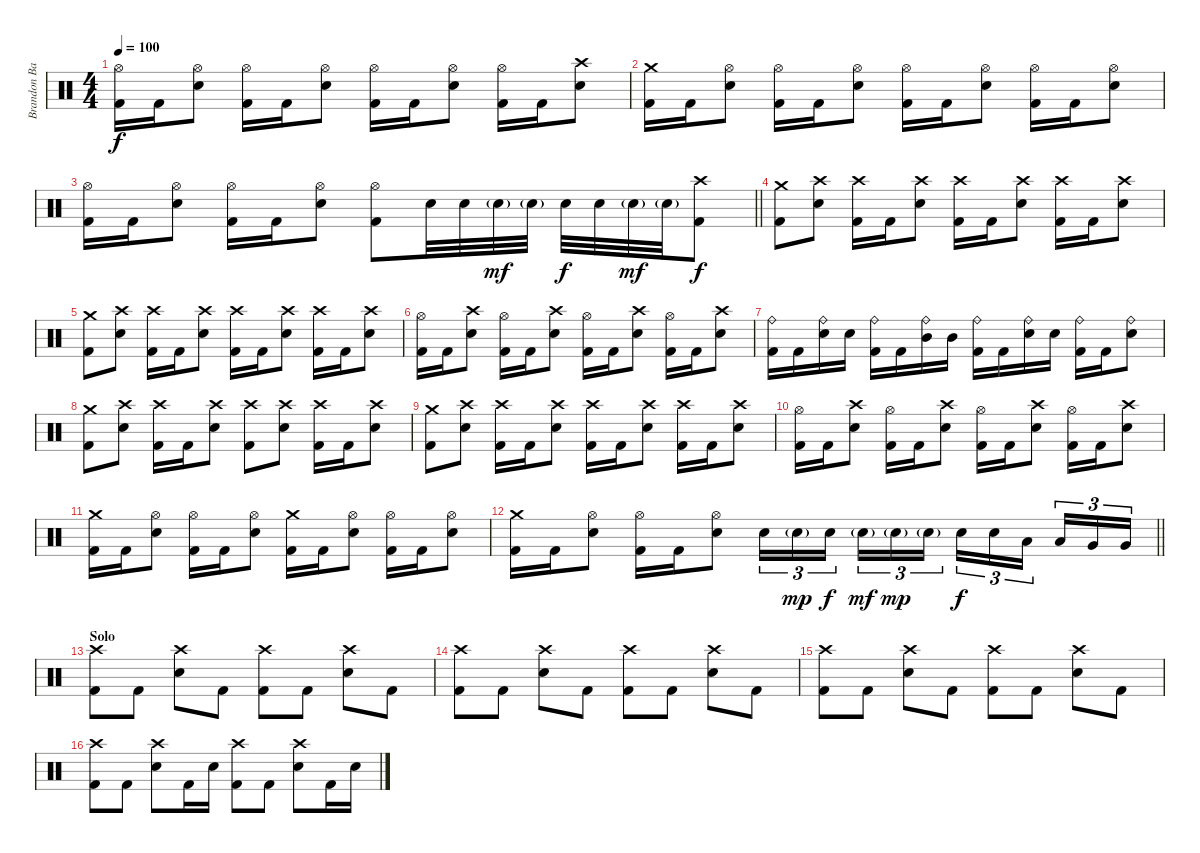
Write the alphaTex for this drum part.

\track ("Brandon Barnes" "Brandon Ba") {instrument percussion}
\staff {score}
\articulation defaults
\ts (4 4)
\tempo 100
\clef neutral
\ks c
("Hi-Hat (open)" "Kick (hit) 2").16{dy f} "Kick (hit) 2".16 ("Hi-Hat (open)" "Electric Snare (hit)").8 ("Hi-Hat (open)" "Kick (hit) 2").16 "Kick (hit) 2".16 ("Hi-Hat (open)" "Electric Snare (hit)").8 ("Hi-Hat (open)" "Kick (hit) 2").16 "Kick (hit) 2".16 ("Hi-Hat (open)" "Electric Snare (hit)").8 ("Hi-Hat (open)" "Kick (hit) 2").16 "Kick (hit) 2".16 ("Crash high (hit)" "Electric Snare (hit)").8 |
("Crash medium (hit)" "Kick (hit) 2").16 "Kick (hit) 2".16 ("Hi-Hat (open)" "Electric Snare (hit)").8 ("Hi-Hat (open)" "Kick (hit) 2").16 "Kick (hit) 2".16 ("Hi-Hat (open)" "Electric Snare (hit)").8 ("Hi-Hat (open)" "Kick (hit) 2").16 "Kick (hit) 2".16 ("Hi-Hat (open)" "Electric Snare (hit)").8 ("Hi-Hat (open)" "Kick (hit) 2").16 "Kick (hit) 2".16 ("Hi-Hat (open)" "Electric Snare (hit)").8 |
\barLineRight lightlight
("Hi-Hat (open)" "Kick (hit) 2").16 "Kick (hit) 2".16 ("Hi-Hat (open)" "Electric Snare (hit)").8 ("Hi-Hat (open)" "Kick (hit) 2").16 "Kick (hit) 2".16 ("Hi-Hat (open)" "Electric Snare (hit)").8 ("Hi-Hat (open)" "Kick (hit) 2").8 "Electric Snare (hit)".32 "Electric Snare (hit)".32 "Electric Snare (hit)"{g}.32{dy mf} "Electric Snare (hit)"{g}.32 "Electric Snare (hit)".32{dy f} "Electric Snare (hit)".32 "Electric Snare (hit)"{g}.32{dy mf} "Electric Snare (hit)"{g}.32 ("Crash high (hit)" "Kick (hit) 2").8{dy f} |
("Crash medium (hit)" "Kick (hit) 2").8 ("Crash high (hit)" "Electric Snare (hit)").8 ("Crash high (hit)" "Kick (hit) 2").16 "Kick (hit) 2".16 ("Crash high (hit)" "Electric Snare (hit)").8 ("Crash high (hit)" "Kick (hit) 2").16 "Kick (hit) 2".16 ("Crash high (hit)" "Electric Snare (hit)").8 ("Crash high (hit)" "Kick (hit) 2").16 "Kick (hit) 2".16 ("Crash high (hit)" "Electric Snare (hit)").8 |
("Crash medium (hit)" "Kick (hit) 2").8 ("Crash high (hit)" "Electric Snare (hit)").8 ("Crash high (hit)" "Kick (hit) 2").16 "Kick (hit) 2".16 ("Crash high (hit)" "Electric Snare (hit)").8 ("Crash high (hit)" "Kick (hit) 2").16 "Kick (hit) 2".16 ("Crash high (hit)" "Electric Snare (hit)").8 ("Crash high (hit)" "Kick (hit) 2").16 "Kick (hit) 2".16 ("Crash high (hit)" "Electric Snare (hit)").8 |
("Hi-Hat (open)" "Kick (hit) 2").16 "Kick (hit) 2".16 ("Crash high (hit)" "Electric Snare (hit)").8 ("Hi-Hat (open)" "Kick (hit) 2").16 "Kick (hit) 2".16 ("Crash high (hit)" "Electric Snare (hit)").8 ("Hi-Hat (open)" "Kick (hit) 2").16 "Kick (hit) 2".16 ("Crash high (hit)" "Electric Snare (hit)").8 ("Hi-Hat (open)" "Kick (hit) 2").16 "Kick (hit) 2".16 ("Crash high (hit)" "Electric Snare (hit)").8 |
("Ride (bell)" "Kick (hit) 2").16 "Kick (hit) 2".16 ("Ride (bell)" "Electric Snare (hit)").16 "Electric Snare (hit)".16 ("Ride (bell)" "Kick (hit) 2").16 "Kick (hit) 2".16 ("Ride (bell)" "Mid Tom (hit)").16 "Mid Tom (hit)".16 ("Ride (bell)" "Kick (hit) 2").16 "Kick (hit) 2".16 ("Ride (bell)" "Electric Snare (hit)").16 "Electric Snare (hit)".16 ("Ride (bell)" "Kick (hit) 2").16 "Kick (hit) 2".16 ("Ride (bell)" "Electric Snare (hit)").8 |
("Crash medium (hit)" "Kick (hit) 2").8 ("Crash high (hit)" "Electric Snare (hit)").8 ("Crash high (hit)" "Kick (hit) 2").16 "Kick (hit) 2".16 ("Crash high (hit)" "Electric Snare (hit)").8 ("Crash high (hit)" "Kick (hit) 2").8 ("Crash high (hit)" "Electric Snare (hit)").8 ("Crash high (hit)" "Kick (hit) 2").16 "Kick (hit) 2".16 ("Crash high (hit)" "Electric Snare (hit)").8 |
("Crash medium (hit)" "Kick (hit) 2").8 ("Crash high (hit)" "Electric Snare (hit)").8 ("Crash high (hit)" "Kick (hit) 2").16 "Kick (hit) 2".16 ("Crash high (hit)" "Electric Snare (hit)").8 ("Crash high (hit)" "Kick (hit) 2").16 "Kick (hit) 2".16 ("Crash high (hit)" "Electric Snare (hit)").8 ("Crash high (hit)" "Kick (hit) 2").16 "Kick (hit) 2".16 ("Crash high (hit)" "Electric Snare (hit)").8 |
("Hi-Hat (open)" "Kick (hit) 2").16 "Kick (hit) 2".16 ("Crash high (hit)" "Electric Snare (hit)").8 ("Hi-Hat (open)" "Kick (hit) 2").16 "Kick (hit) 2".16 ("Crash high (hit)" "Electric Snare (hit)").8 ("Hi-Hat (open)" "Kick (hit) 2").16 "Kick (hit) 2".16 ("Crash high (hit)" "Electric Snare (hit)").8 ("Hi-Hat (open)" "Kick (hit) 2").16 "Kick (hit) 2".16 ("Crash high (hit)" "Electric Snare (hit)").8 |
("Crash medium (hit)" "Kick (hit) 2").16 "Kick (hit) 2".16 ("Hi-Hat (open)" "Electric Snare (hit)").8 ("Hi-Hat (open)" "Kick (hit) 2").16 "Kick (hit) 2".16 ("Hi-Hat (open)" "Electric Snare (hit)").8 ("Crash medium (hit)" "Kick (hit) 2").16 "Kick (hit) 2".16 ("Hi-Hat (open)" "Electric Snare (hit)").8 ("Hi-Hat (open)" "Kick (hit) 2").16 "Kick (hit) 2".16 ("Hi-Hat (open)" "Electric Snare (hit)").8 |
\barLineRight lightlight
("Crash medium (hit)" "Kick (hit) 2").16 "Kick (hit) 2".16 ("Hi-Hat (open)" "Electric Snare (hit)").8 ("Hi-Hat (open)" "Kick (hit) 2").16 "Kick (hit) 2".16 ("Hi-Hat (open)" "Electric Snare (hit)").8 "Electric Snare (hit)".16{tu (3 2)} "Electric Snare (hit)"{g}.16{tu (3 2) dy mp} "Electric Snare (hit)".16{tu (3 2) dy f beam splitsecondary} "Electric Snare (hit)"{g}.16{tu (3 2) dy mf} "Electric Snare (hit)"{g}.16{tu (3 2) dy mp} "Electric Snare (hit)"{g}.16{tu (3 2)} "Electric Snare (hit)".16{tu (3 2) dy f} "Electric Snare (hit)".16{tu (3 2)} "Low Tom (hit)".16{tu (3 2) beam splitsecondary} "Low Tom (hit)".16{tu (3 2)} "Very Low Tom (hit)".16{tu (3 2)} "Very Low Tom (hit)".16{tu (3 2)} |
\section ("" "Solo")
("Crash high (hit)" "Kick (hit) 2").8 "Kick (hit) 2".8 ("Crash high (hit)" "Electric Snare (hit)").8 "Kick (hit) 2".8 ("Crash high (hit)" "Kick (hit) 2").8 "Kick (hit) 2".8 ("Crash high (hit)" "Electric Snare (hit)").8 "Kick (hit) 2".8 |
("Crash high (hit)" "Kick (hit) 2").8 "Kick (hit) 2".8 ("Crash high (hit)" "Electric Snare (hit)").8 "Kick (hit) 2".8 ("Crash high (hit)" "Kick (hit) 2").8 "Kick (hit) 2".8 ("Crash high (hit)" "Electric Snare (hit)").8 "Kick (hit) 2".8 |
("Crash high (hit)" "Kick (hit) 2").8 "Kick (hit) 2".8 ("Crash high (hit)" "Electric Snare (hit)").8 "Kick (hit) 2".8 ("Crash high (hit)" "Kick (hit) 2").8 "Kick (hit) 2".8 ("Crash high (hit)" "Electric Snare (hit)").8 "Kick (hit) 2".8 |
("Crash high (hit)" "Kick (hit) 2").8 "Kick (hit) 2".8 ("Crash high (hit)" "Electric Snare (hit)").8 "Kick (hit) 2".16 "Electric Snare (hit)".16 ("Crash high (hit)" "Kick (hit) 2").8 "Kick (hit) 2".8 ("Crash high (hit)" "Electric Snare (hit)").8 "Kick (hit) 2".16 "Electric Snare (hit)".16
